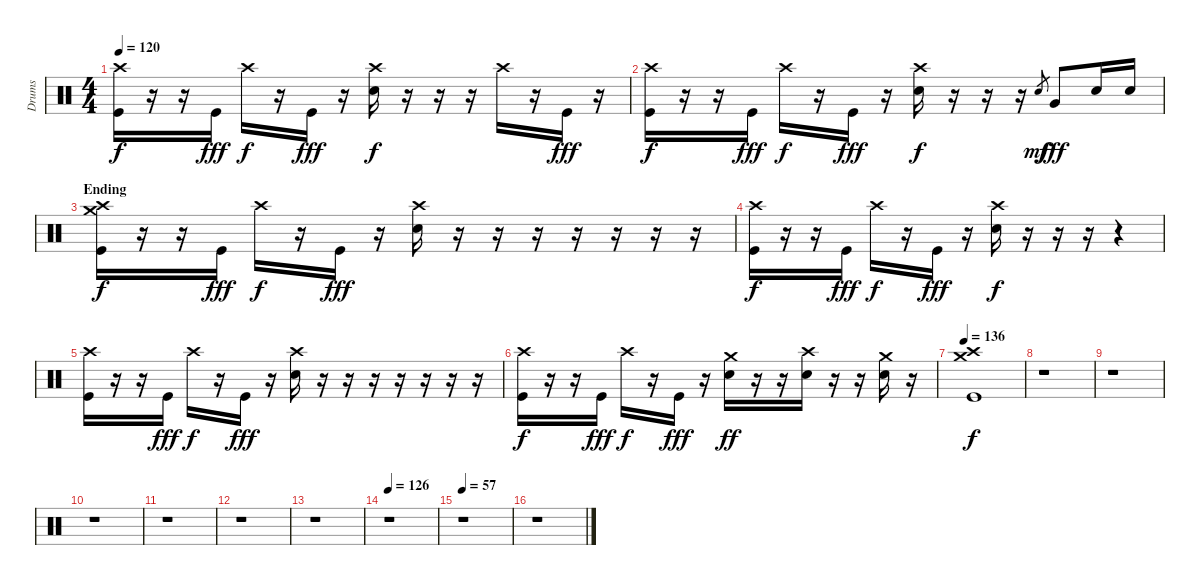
\track ("Drums" "Drums") {instrument percussion}
\staff {score}
\articulation defaults
\ts (4 4)
\tempo 120
\clef neutral
\ks c
("Crash high (hit)" "Kick (hit)").16{dy f} r.16 r.16 "Kick (hit)".16{dy fff} "Crash high (hit)".16{dy f} r.16 "Kick (hit)".16{dy fff} r.16 ("Crash high (hit)" "Snare (hit) 2").16{dy f} r.16 r.16 r.16 "Crash high (hit)".16 r.16 "Kick (hit)".16{dy fff} r.16 |
("Crash high (hit)" "Kick (hit)").16{dy f} r.16 r.16 "Kick (hit)".16{dy fff} "Crash high (hit)".16{dy f} r.16 "Kick (hit)".16{dy fff} r.16 ("Crash high (hit)" "Snare (hit) 2").16{dy f} r.16 r.16 r.16 "Snare (hit)".8{gr dy mf} "Very Low Tom (hit)".8{dy fff} "Snare (hit) 2".16 "Snare (hit) 2".16 |
\section ("" "Ending")
("Crash high (hit)" "Crash medium (hit)" "Kick (hit)").16{dy f} r.16 r.16 "Kick (hit)".16{dy fff} "Crash high (hit)".16{dy f} r.16 "Kick (hit)".16{dy fff} r.16 ("Crash high (hit)" "Snare (hit) 2").16 r.16 r.16 r.16 r.16 r.16 r.16 r.16 |
("Crash high (hit)" "Kick (hit)").16{dy f} r.16 r.16 "Kick (hit)".16{dy fff} "Crash high (hit)".16{dy f} r.16 "Kick (hit)".16{dy fff} r.16 ("Crash high (hit)" "Snare (hit) 2").16{dy f} r.16 r.16 r.16 r.4 |
("Crash high (hit)" "Kick (hit)").16 r.16 r.16 "Kick (hit)".16{dy fff} "Crash high (hit)".16{dy f} r.16 "Kick (hit)".16{dy fff} r.16 ("Crash high (hit)" "Snare (hit) 2").16 r.16 r.16 r.16 r.16 r.16 r.16 r.16 |
("Crash high (hit)" "Kick (hit)").16{dy f} r.16 r.16 "Kick (hit)".16{dy fff} "Crash high (hit)".16{dy f} r.16 "Kick (hit)".16{dy fff} r.16 ("Crash medium (hit)" "Snare (hit) 2").16{dy ff} r.16 r.16 ("Crash high (hit)" "Snare (hit) 2").16 r.16 r.16 ("Crash medium (hit)" "Snare (hit) 2").16 r.16 |
\tempo 136
("Crash medium (hit)" "Crash high (hit)" "Kick (hit)").1{dy f} |
r.1 |
r.1 |
r.1 |
r.1 |
r.1 |
r.1 |
\tempo 126
r.1 |
\tempo 57
r.1 |
r.1
